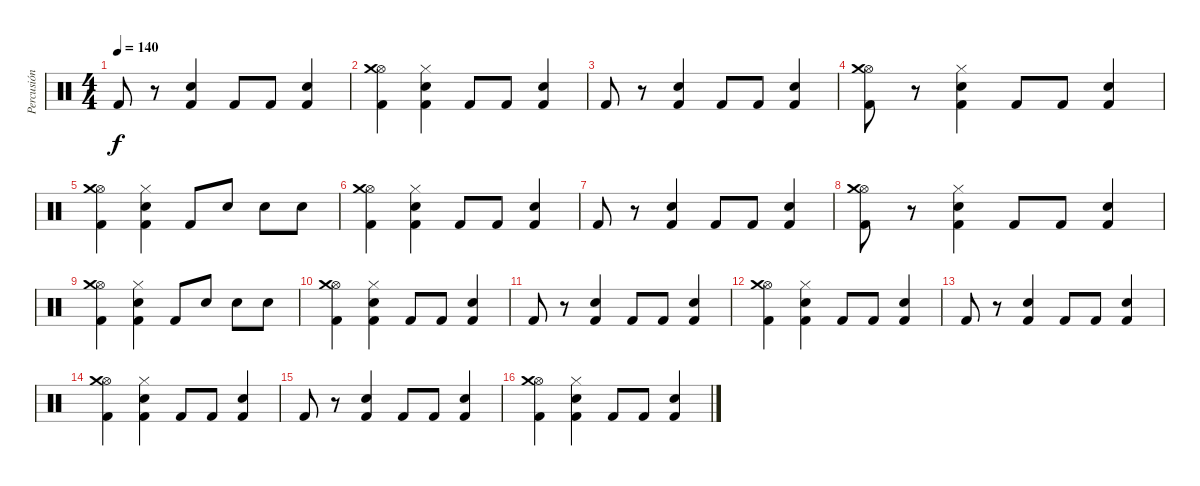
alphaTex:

\track ("Percusión" "Percusión") {instrument percussion}
\staff {score}
\articulation defaults
\ts (4 4)
\tempo 140
\clef neutral
\ks c "Kick (hit) 2".8{dy f}
r.8 ("Snare (hit) 2" "Kick (hit) 2").4 "Kick (hit) 2".8 "Kick (hit) 2".8 ("Snare (hit) 2" "Kick (hit) 2").4 |
("Hi-Hat (open)" "Crash medium (hit)" "Kick (hit) 2").4 ("Hi-Hat (closed)" "Snare (hit) 2" "Kick (hit) 2").4 "Kick (hit) 2".8 "Kick (hit) 2".8 ("Snare (hit) 2" "Kick (hit) 2").4 |
"Kick (hit) 2".8 r.8 ("Snare (hit) 2" "Kick (hit) 2").4 "Kick (hit) 2".8 "Kick (hit) 2".8 ("Snare (hit) 2" "Kick (hit) 2").4 |
("Hi-Hat (open)" "Crash medium (hit)" "Kick (hit) 2").8 r.8 ("Hi-Hat (closed)" "Snare (hit) 2" "Kick (hit) 2").4 "Kick (hit) 2".8 "Kick (hit) 2".8 ("Snare (hit) 2" "Kick (hit) 2").4 |
("Hi-Hat (open)" "Crash medium (hit)" "Kick (hit) 2").4 ("Hi-Hat (closed)" "Snare (hit) 2" "Kick (hit) 2").4 "Kick (hit) 2".8 "Snare (hit) 2".8 "Snare (hit) 2".8 "Snare (hit) 2".8 |
("Hi-Hat (open)" "Crash medium (hit)" "Kick (hit) 2").4 ("Hi-Hat (closed)" "Snare (hit) 2" "Kick (hit) 2").4 "Kick (hit) 2".8 "Kick (hit) 2".8 ("Snare (hit) 2" "Kick (hit) 2").4 |
"Kick (hit) 2".8 r.8 ("Snare (hit) 2" "Kick (hit) 2").4 "Kick (hit) 2".8 "Kick (hit) 2".8 ("Snare (hit) 2" "Kick (hit) 2").4 |
("Hi-Hat (open)" "Crash medium (hit)" "Kick (hit) 2").8 r.8 ("Hi-Hat (closed)" "Snare (hit) 2" "Kick (hit) 2").4 "Kick (hit) 2".8 "Kick (hit) 2".8 ("Snare (hit) 2" "Kick (hit) 2").4 |
("Hi-Hat (open)" "Crash medium (hit)" "Kick (hit) 2").4 ("Hi-Hat (closed)" "Snare (hit) 2" "Kick (hit) 2").4 "Kick (hit) 2".8 "Snare (hit) 2".8 "Snare (hit) 2".8 "Snare (hit) 2".8 |
("Hi-Hat (open)" "Crash medium (hit)" "Kick (hit) 2").4 ("Hi-Hat (closed)" "Snare (hit) 2" "Kick (hit) 2").4 "Kick (hit) 2".8 "Kick (hit) 2".8 ("Snare (hit) 2" "Kick (hit) 2").4 |
"Kick (hit) 2".8 r.8 ("Snare (hit) 2" "Kick (hit) 2").4 "Kick (hit) 2".8 "Kick (hit) 2".8 ("Snare (hit) 2" "Kick (hit) 2").4 |
("Hi-Hat (open)" "Crash medium (hit)" "Kick (hit) 2").4 ("Hi-Hat (closed)" "Snare (hit) 2" "Kick (hit) 2").4 "Kick (hit) 2".8 "Kick (hit) 2".8 ("Snare (hit) 2" "Kick (hit) 2").4 |
"Kick (hit) 2".8 r.8 ("Snare (hit) 2" "Kick (hit) 2").4 "Kick (hit) 2".8 "Kick (hit) 2".8 ("Snare (hit) 2" "Kick (hit) 2").4 |
("Hi-Hat (open)" "Crash medium (hit)" "Kick (hit) 2").4 ("Hi-Hat (closed)" "Snare (hit) 2" "Kick (hit) 2").4 "Kick (hit) 2".8 "Kick (hit) 2".8 ("Snare (hit) 2" "Kick (hit) 2").4 |
"Kick (hit) 2".8 r.8 ("Snare (hit) 2" "Kick (hit) 2").4 "Kick (hit) 2".8 "Kick (hit) 2".8 ("Snare (hit) 2" "Kick (hit) 2").4 |
("Hi-Hat (open)" "Crash medium (hit)" "Kick (hit) 2").4 ("Hi-Hat (closed)" "Snare (hit) 2" "Kick (hit) 2").4 "Kick (hit) 2".8 "Kick (hit) 2".8 ("Snare (hit) 2" "Kick (hit) 2").4
